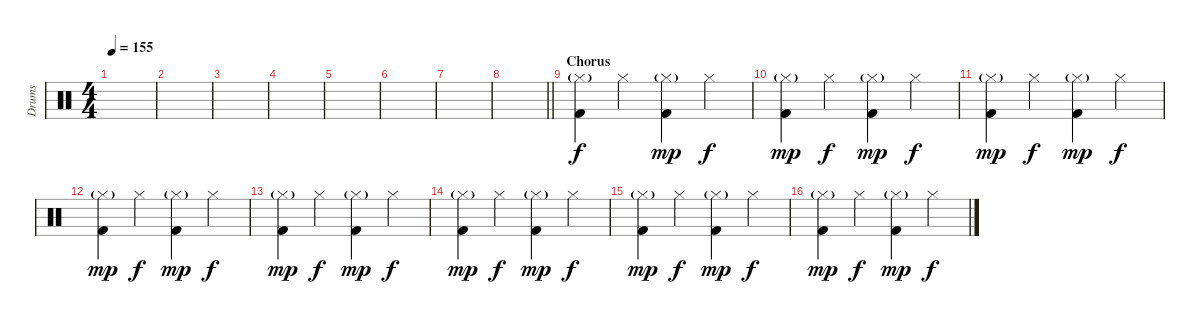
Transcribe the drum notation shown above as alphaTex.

\track ("Drums" "Drums") {instrument percussion}
\staff {score}
\articulation defaults
\ts (4 4)
\tempo 155
\clef neutral
\ks c
|
|
|
|
|
|
|
\barLineRight lightlight
|
\section ("" "Chorus")
("Hi-Hat (closed)"{g} "Kick (hit) 2").4 "Hi-Hat (closed)".4{dy f} ("Hi-Hat (closed)"{g} "Kick (hit) 2").4{dy mp} "Hi-Hat (closed)".4{dy f} |
("Hi-Hat (closed)"{g} "Kick (hit) 2").4{dy mp} "Hi-Hat (closed)".4{dy f} ("Hi-Hat (closed)"{g} "Kick (hit) 2").4{dy mp} "Hi-Hat (closed)".4{dy f} |
("Hi-Hat (closed)"{g} "Kick (hit) 2").4{dy mp} "Hi-Hat (closed)".4{dy f} ("Hi-Hat (closed)"{g} "Kick (hit) 2").4{dy mp} "Hi-Hat (closed)".4{dy f} |
("Hi-Hat (closed)"{g} "Kick (hit) 2").4{dy mp} "Hi-Hat (closed)".4{dy f} ("Hi-Hat (closed)"{g} "Kick (hit) 2").4{dy mp} "Hi-Hat (closed)".4{dy f} |
("Hi-Hat (closed)"{g} "Kick (hit) 2").4{dy mp} "Hi-Hat (closed)".4{dy f} ("Hi-Hat (closed)"{g} "Kick (hit) 2").4{dy mp} "Hi-Hat (closed)".4{dy f} |
("Hi-Hat (closed)"{g} "Kick (hit) 2").4{dy mp} "Hi-Hat (closed)".4{dy f} ("Hi-Hat (closed)"{g} "Kick (hit) 2").4{dy mp} "Hi-Hat (closed)".4{dy f} |
("Hi-Hat (closed)"{g} "Kick (hit) 2").4{dy mp} "Hi-Hat (closed)".4{dy f} ("Hi-Hat (closed)"{g} "Kick (hit) 2").4{dy mp} "Hi-Hat (closed)".4{dy f} |
("Hi-Hat (closed)"{g} "Kick (hit) 2").4{dy mp} "Hi-Hat (closed)".4{dy f} ("Hi-Hat (closed)"{g} "Kick (hit) 2").4{dy mp} "Hi-Hat (closed)".4{dy f}
